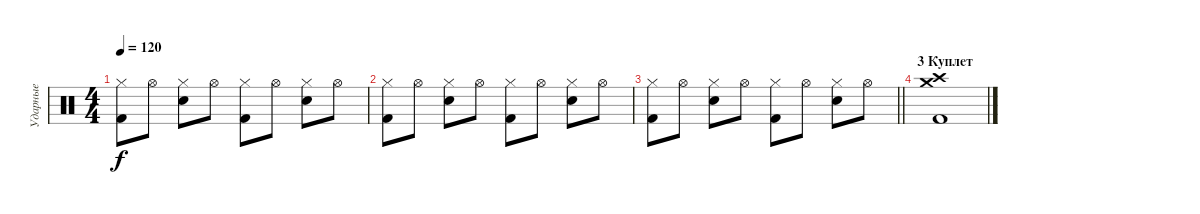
\track ("Ударные" "Ударные") {instrument percussion}
\staff {score}
\articulation defaults
\ts (4 4)
\tempo 120
\clef neutral
\ks c
("Hi-Hat (closed)" "Kick (hit) 2").8{dy f} "Hi-Hat (open)".8 ("Hi-Hat (closed)" "Snare (hit) 2").8 "Hi-Hat (open)".8 ("Hi-Hat (closed)" "Kick (hit) 2").8 "Hi-Hat (open)".8 ("Hi-Hat (closed)" "Snare (hit) 2").8 "Hi-Hat (open)".8 |
("Hi-Hat (closed)" "Kick (hit) 2").8 "Hi-Hat (open)".8 ("Hi-Hat (closed)" "Snare (hit) 2").8 "Hi-Hat (open)".8 ("Hi-Hat (closed)" "Kick (hit) 2").8 "Hi-Hat (open)".8 ("Hi-Hat (closed)" "Snare (hit) 2").8 "Hi-Hat (open)".8 |
\barLineRight lightlight
("Hi-Hat (closed)" "Kick (hit) 2").8 "Hi-Hat (open)".8 ("Hi-Hat (closed)" "Snare (hit) 2").8 "Hi-Hat (open)".8 ("Hi-Hat (closed)" "Kick (hit) 2").8 "Hi-Hat (open)".8 ("Hi-Hat (closed)" "Snare (hit) 2").8 "Hi-Hat (open)".8 |
\section ("" "3 Куплет")
("Kick (hit) 2" "Crash medium (hit)" "Crash high (hit)").1
